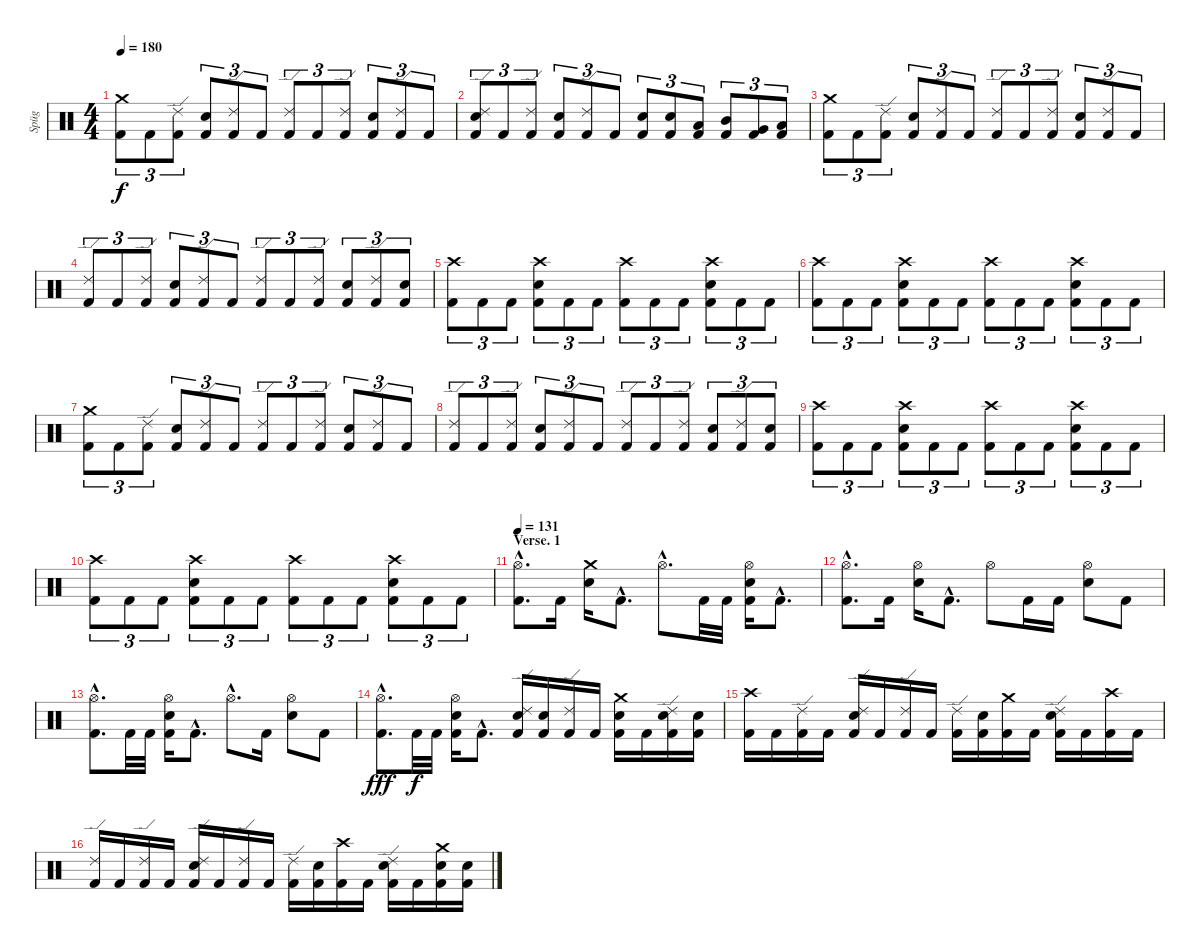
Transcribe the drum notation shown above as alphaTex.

\track ("Spüg" "Spüg") {instrument percussion}
\staff {score}
\articulation defaults
\ts (4 4)
\tempo 180
\clef neutral
\ks c
("Crash medium (hit)" "Kick (hit) 2").8{tu (3 2) dy f} "Kick (hit) 2".8{tu (3 2)} ("Ride (edge) 2" "Kick (hit) 2").8{tu (3 2)} ("Electric Snare (hit)" "Kick (hit) 2").8{tu (3 2)} ("Ride (edge) 2" "Kick (hit) 2").8{tu (3 2)} "Kick (hit) 2".8{tu (3 2)} ("Ride (edge) 2" "Kick (hit) 2").8{tu (3 2)} "Kick (hit) 2".8{tu (3 2)} ("Ride (edge) 2" "Kick (hit) 2").8{tu (3 2)} ("Electric Snare (hit)" "Kick (hit) 2").8{tu (3 2)} ("Ride (edge) 2" "Kick (hit) 2").8{tu (3 2)} "Kick (hit) 2".8{tu (3 2)} |
("Ride (edge) 2" "Electric Snare (hit)" "Kick (hit) 2").8{tu (3 2)} "Kick (hit) 2".8{tu (3 2)} ("Ride (edge) 2" "Kick (hit) 2").8{tu (3 2)} ("Electric Snare (hit)" "Kick (hit) 2").8{tu (3 2)} ("Ride (edge) 2" "Kick (hit) 2").8{tu (3 2)} "Kick (hit) 2".8{tu (3 2)} ("Electric Snare (hit)" "Kick (hit) 2").8{tu (3 2)} ("Electric Snare (hit)" "Kick (hit) 2").8{tu (3 2)} ("Low Tom (hit)" "Kick (hit) 2").8{tu (3 2)} ("Mid Tom (hit)" "Kick (hit) 2").8{tu (3 2)} ("Very Low Tom (hit)" "Kick (hit) 2").8{tu (3 2)} ("Low Floor Tom (hit)" "Kick (hit) 2").8{tu (3 2)} |
("Crash medium (hit)" "Kick (hit) 2").8{tu (3 2)} "Kick (hit) 2".8{tu (3 2)} ("Ride (edge) 2" "Kick (hit) 2").8{tu (3 2)} ("Electric Snare (hit)" "Kick (hit) 2").8{tu (3 2)} ("Ride (edge) 2" "Kick (hit) 2").8{tu (3 2)} "Kick (hit) 2".8{tu (3 2)} ("Ride (edge) 2" "Kick (hit) 2").8{tu (3 2)} "Kick (hit) 2".8{tu (3 2)} ("Ride (edge) 2" "Kick (hit) 2").8{tu (3 2)} ("Electric Snare (hit)" "Kick (hit) 2").8{tu (3 2)} ("Ride (edge) 2" "Kick (hit) 2").8{tu (3 2)} "Kick (hit) 2".8{tu (3 2)} |
("Ride (edge) 2" "Kick (hit) 2").8{tu (3 2)} "Kick (hit) 2".8{tu (3 2)} ("Ride (edge) 2" "Kick (hit) 2").8{tu (3 2)} ("Electric Snare (hit)" "Kick (hit) 2").8{tu (3 2)} ("Ride (edge) 2" "Kick (hit) 2").8{tu (3 2)} "Kick (hit) 2".8{tu (3 2)} ("Ride (edge) 2" "Kick (hit) 2").8{tu (3 2)} "Kick (hit) 2".8{tu (3 2)} ("Ride (edge) 2" "Kick (hit) 2").8{tu (3 2)} ("Electric Snare (hit)" "Kick (hit) 2").8{tu (3 2)} ("Ride (edge) 2" "Kick (hit) 2").8{tu (3 2)} ("Electric Snare (hit)" "Kick (hit) 2").8{tu (3 2)} |
("Crash high (hit)" "Kick (hit) 2").8{tu (3 2)} "Kick (hit) 2".8{tu (3 2)} "Kick (hit) 2".8{tu (3 2)} ("Crash high (hit)" "Electric Snare (hit)" "Kick (hit) 2").8{tu (3 2)} "Kick (hit) 2".8{tu (3 2)} "Kick (hit) 2".8{tu (3 2)} ("Crash high (hit)" "Kick (hit) 2").8{tu (3 2)} "Kick (hit) 2".8{tu (3 2)} "Kick (hit) 2".8{tu (3 2)} ("Crash high (hit)" "Electric Snare (hit)" "Kick (hit) 2").8{tu (3 2)} "Kick (hit) 2".8{tu (3 2)} "Kick (hit) 2".8{tu (3 2)} |
("Crash high (hit)" "Kick (hit) 2").8{tu (3 2)} "Kick (hit) 2".8{tu (3 2)} "Kick (hit) 2".8{tu (3 2)} ("Crash high (hit)" "Electric Snare (hit)" "Kick (hit) 2").8{tu (3 2)} "Kick (hit) 2".8{tu (3 2)} "Kick (hit) 2".8{tu (3 2)} ("Crash high (hit)" "Kick (hit) 2").8{tu (3 2)} "Kick (hit) 2".8{tu (3 2)} "Kick (hit) 2".8{tu (3 2)} ("Crash high (hit)" "Electric Snare (hit)" "Kick (hit) 2").8{tu (3 2)} "Kick (hit) 2".8{tu (3 2)} "Kick (hit) 2".8{tu (3 2)} |
("Crash medium (hit)" "Kick (hit) 2").8{tu (3 2)} "Kick (hit) 2".8{tu (3 2)} ("Ride (edge) 2" "Kick (hit) 2").8{tu (3 2)} ("Electric Snare (hit)" "Kick (hit) 2").8{tu (3 2)} ("Ride (edge) 2" "Kick (hit) 2").8{tu (3 2)} "Kick (hit) 2".8{tu (3 2)} ("Ride (edge) 2" "Kick (hit) 2").8{tu (3 2)} "Kick (hit) 2".8{tu (3 2)} ("Ride (edge) 2" "Kick (hit) 2").8{tu (3 2)} ("Electric Snare (hit)" "Kick (hit) 2").8{tu (3 2)} ("Ride (edge) 2" "Kick (hit) 2").8{tu (3 2)} "Kick (hit) 2".8{tu (3 2)} |
("Ride (edge) 2" "Kick (hit) 2").8{tu (3 2)} "Kick (hit) 2".8{tu (3 2)} ("Ride (edge) 2" "Kick (hit) 2").8{tu (3 2)} ("Electric Snare (hit)" "Kick (hit) 2").8{tu (3 2)} ("Ride (edge) 2" "Kick (hit) 2").8{tu (3 2)} "Kick (hit) 2".8{tu (3 2)} ("Ride (edge) 2" "Kick (hit) 2").8{tu (3 2)} "Kick (hit) 2".8{tu (3 2)} ("Ride (edge) 2" "Kick (hit) 2").8{tu (3 2)} ("Electric Snare (hit)" "Kick (hit) 2").8{tu (3 2)} ("Ride (edge) 2" "Kick (hit) 2").8{tu (3 2)} ("Electric Snare (hit)" "Kick (hit) 2").8{tu (3 2)} |
("Crash high (hit)" "Kick (hit) 2").8{tu (3 2)} "Kick (hit) 2".8{tu (3 2)} "Kick (hit) 2".8{tu (3 2)} ("Crash high (hit)" "Electric Snare (hit)" "Kick (hit) 2").8{tu (3 2)} "Kick (hit) 2".8{tu (3 2)} "Kick (hit) 2".8{tu (3 2)} ("Crash high (hit)" "Kick (hit) 2").8{tu (3 2)} "Kick (hit) 2".8{tu (3 2)} "Kick (hit) 2".8{tu (3 2)} ("Crash high (hit)" "Electric Snare (hit)" "Kick (hit) 2").8{tu (3 2)} "Kick (hit) 2".8{tu (3 2)} "Kick (hit) 2".8{tu (3 2)} |
("Crash high (hit)" "Kick (hit) 2").8{tu (3 2)} "Kick (hit) 2".8{tu (3 2)} "Kick (hit) 2".8{tu (3 2)} ("Crash high (hit)" "Electric Snare (hit)" "Kick (hit) 2").8{tu (3 2)} "Kick (hit) 2".8{tu (3 2)} "Kick (hit) 2".8{tu (3 2)} ("Crash high (hit)" "Kick (hit) 2").8{tu (3 2)} "Kick (hit) 2".8{tu (3 2)} "Kick (hit) 2".8{tu (3 2)} ("Crash high (hit)" "Electric Snare (hit)" "Kick (hit) 2").8{tu (3 2)} "Kick (hit) 2".8{tu (3 2)} "Kick (hit) 2".8{tu (3 2)} |
\section ("" "Verse. 1")
\tempo 131
("Hi-Hat (open)"{hac} "Kick (hit) 2"{hac}).8{d} "Kick (hit) 2".16 ("Crash medium (hit)" "Electric Snare (hit)").16 "Kick (hit) 2"{hac}.8{d} "Hi-Hat (open)"{hac}.8{d} "Kick (hit) 2".32 "Kick (hit) 2".32 ("Hi-Hat (open)" "Electric Snare (hit)" "Kick (hit) 2").16 "Kick (hit) 2"{hac}.8{d} |
("Hi-Hat (open)"{hac} "Kick (hit) 2"{hac}).8{d} "Kick (hit) 2".16 ("Hi-Hat (open)" "Electric Snare (hit)").16 "Kick (hit) 2"{hac}.8{d} "Hi-Hat (open)".8 "Kick (hit) 2".16 "Kick (hit) 2".16 ("Hi-Hat (open)" "Electric Snare (hit)").8 "Kick (hit) 2".8 |
("Hi-Hat (open)"{hac} "Kick (hit) 2"{hac}).8{d} "Kick (hit) 2".32 "Kick (hit) 2".32 ("Hi-Hat (open)" "Electric Snare (hit)" "Kick (hit) 2").16 "Kick (hit) 2"{hac}.8{d} "Hi-Hat (open)"{hac}.8{d} "Kick (hit) 2".16 ("Hi-Hat (open)" "Electric Snare (hit)").8 "Kick (hit) 2".8 |
("Hi-Hat (open)"{hac} "Kick (hit) 2"{hac}).8{d dy fff} "Kick (hit) 2".32{dy f} "Kick (hit) 2".32 ("Hi-Hat (open)" "Electric Snare (hit)" "Kick (hit) 2").16 "Kick (hit) 2"{hac}.8{d} ("Ride (edge) 2" "Electric Snare (hit)" "Kick (hit) 2").16 ("Electric Snare (hit)" "Kick (hit) 2").16 ("Ride (edge) 2" "Kick (hit) 2").16 "Kick (hit) 2".16 ("Crash medium (hit)" "Electric Snare (hit)" "Kick (hit) 2").16 "Kick (hit) 2".16 ("Ride (edge) 2" "Electric Snare (hit)" "Kick (hit) 2").16 ("Electric Snare (hit)" "Kick (hit) 2").16 |
("Crash high (hit)" "Kick (hit) 2").16 "Kick (hit) 2".16 ("Ride (edge) 2" "Kick (hit) 2").16 "Kick (hit) 2".16 ("Ride (edge) 2" "Electric Snare (hit)" "Kick (hit) 2").16 "Kick (hit) 2".16 ("Ride (edge) 2" "Kick (hit) 2").16 "Kick (hit) 2".16 ("Ride (edge) 2" "Kick (hit) 2").16 ("Electric Snare (hit)" "Kick (hit) 2").16 ("Crash medium (hit)" "Kick (hit) 2").16 "Kick (hit) 2".16 ("Ride (edge) 2" "Electric Snare (hit)" "Kick (hit) 2").16 "Kick (hit) 2".16 ("Crash high (hit)" "Kick (hit) 2").16 "Kick (hit) 2".16 |
("Ride (edge) 2" "Kick (hit) 2").16 "Kick (hit) 2".16 ("Ride (edge) 2" "Kick (hit) 2").16 "Kick (hit) 2".16 ("Ride (edge) 2" "Electric Snare (hit)" "Kick (hit) 2").16 "Kick (hit) 2".16 ("Ride (edge) 2" "Kick (hit) 2").16 "Kick (hit) 2".16 ("Ride (edge) 2" "Kick (hit) 2").16 ("Electric Snare (hit)" "Kick (hit) 2").16 ("Crash high (hit)" "Kick (hit) 2").16 "Kick (hit) 2".16 ("Ride (edge) 2" "Electric Snare (hit)" "Kick (hit) 2").16 "Kick (hit) 2".16 ("Crash medium (hit)" "Electric Snare (hit)" "Kick (hit) 2").16 ("Electric Snare (hit)" "Kick (hit) 2").16
